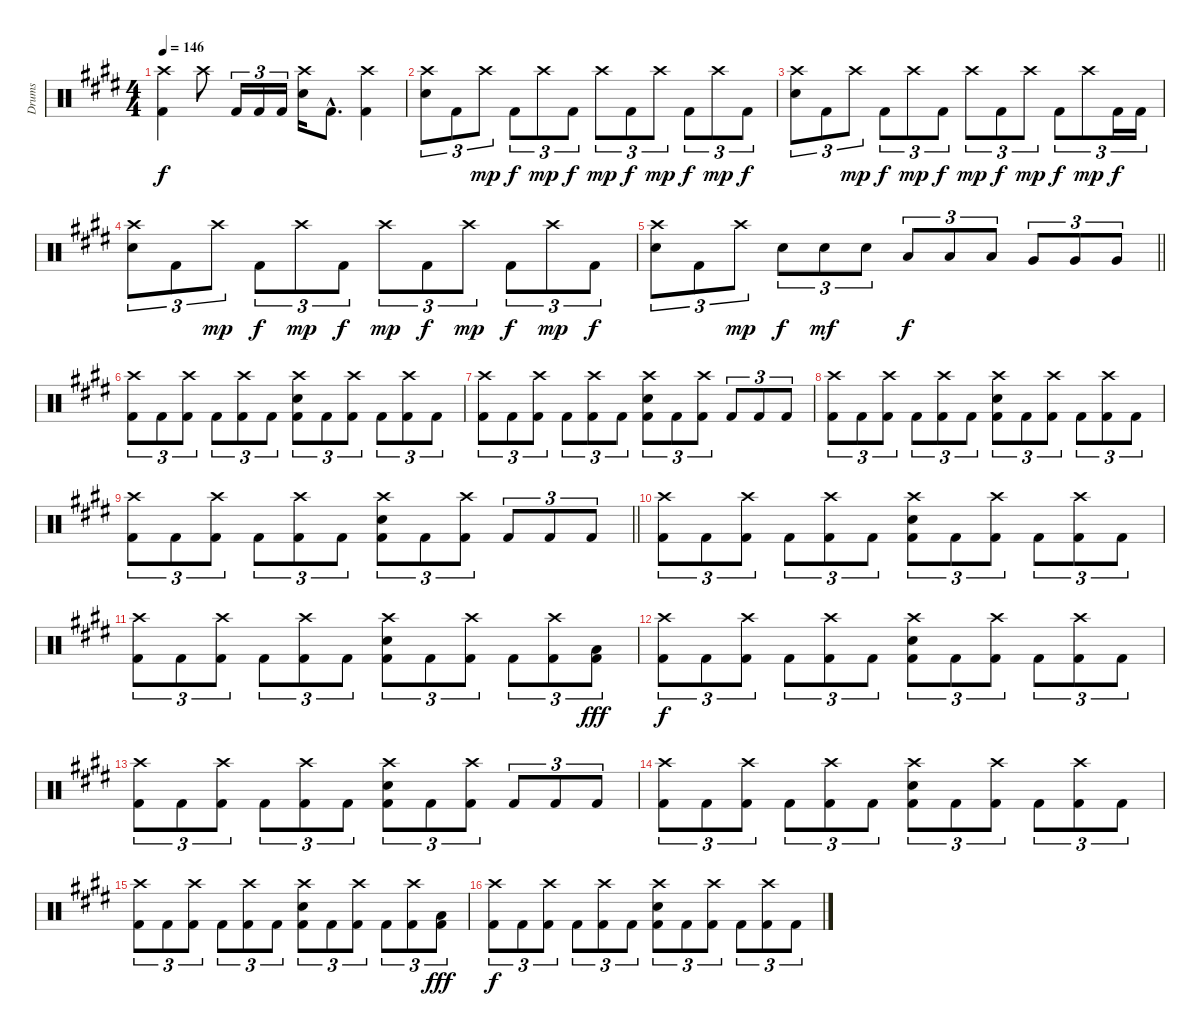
\track ("Drums" "Drums") {instrument percussion}
\staff {score}
\articulation defaults
\ts (4 4)
\tempo 146
\clef neutral
\ks c#minor
("Crash high (hit)" "Kick (hit) 2").4{dy f} "Crash high (hit)".8 "Kick (hit) 2".16{tu (3 2)} "Kick (hit) 2".16{tu (3 2)} "Kick (hit) 2".16{tu (3 2)} ("Crash high (hit)" "Snare (hit) 2").16 "Kick (hit) 2"{hac}.8{d} ("Crash high (hit)" "Kick (hit) 2").4 |
("Crash high (hit)" "Snare (hit) 2").8{tu (3 2)} "Kick (hit) 2".8{tu (3 2)} "Crash high (hit)".8{tu (3 2) dy mp} "Kick (hit) 2".8{tu (3 2) dy f} "Crash high (hit)".8{tu (3 2) dy mp} "Kick (hit) 2".8{tu (3 2) dy f} "Crash high (hit)".8{tu (3 2) dy mp} "Kick (hit) 2".8{tu (3 2) dy f} "Crash high (hit)".8{tu (3 2) dy mp} "Kick (hit) 2".8{tu (3 2) dy f} "Crash high (hit)".8{tu (3 2) dy mp} "Kick (hit) 2".8{tu (3 2) dy f} |
("Crash high (hit)" "Snare (hit) 2").8{tu (3 2)} "Kick (hit) 2".8{tu (3 2)} "Crash high (hit)".8{tu (3 2) dy mp} "Kick (hit) 2".8{tu (3 2) dy f} "Crash high (hit)".8{tu (3 2) dy mp} "Kick (hit) 2".8{tu (3 2) dy f} "Crash high (hit)".8{tu (3 2) dy mp} "Kick (hit) 2".8{tu (3 2) dy f} "Crash high (hit)".8{tu (3 2) dy mp} "Kick (hit) 2".8{tu (3 2) dy f} "Crash high (hit)".8{tu (3 2) dy mp} "Kick (hit) 2".16{tu (3 2) dy f} "Kick (hit) 2".16{tu (3 2)} |
("Crash high (hit)" "Snare (hit) 2").8{tu (3 2)} "Kick (hit) 2".8{tu (3 2)} "Crash high (hit)".8{tu (3 2) dy mp} "Kick (hit) 2".8{tu (3 2) dy f} "Crash high (hit)".8{tu (3 2) dy mp} "Kick (hit) 2".8{tu (3 2) dy f} "Crash high (hit)".8{tu (3 2) dy mp} "Kick (hit) 2".8{tu (3 2) dy f} "Crash high (hit)".8{tu (3 2) dy mp} "Kick (hit) 2".8{tu (3 2) dy f} "Crash high (hit)".8{tu (3 2) dy mp} "Kick (hit) 2".8{tu (3 2) dy f} |
\barLineRight lightlight
("Crash high (hit)" "Snare (hit) 2").8{tu (3 2)} "Kick (hit) 2".8{tu (3 2)} "Crash high (hit)".8{tu (3 2) dy mp} "Snare (hit) 2".8{tu (3 2) dy f} "Snare (hit) 2".8{tu (3 2) dy mf} "Snare (hit) 2".8{tu (3 2)} "Low Tom (hit)".8{tu (3 2) dy f} "Low Tom (hit)".8{tu (3 2)} "Low Tom (hit)".8{tu (3 2)} "Very Low Tom (hit)".8{tu (3 2)} "Very Low Tom (hit)".8{tu (3 2)} "Very Low Tom (hit)".8{tu (3 2)} |
("Crash high (hit)" "Kick (hit) 2").8{tu (3 2)} "Kick (hit) 2".8{tu (3 2)} ("Crash high (hit)" "Kick (hit) 2").8{tu (3 2)} "Kick (hit) 2".8{tu (3 2)} ("Crash high (hit)" "Kick (hit) 2").8{tu (3 2)} "Kick (hit) 2".8{tu (3 2)} ("Crash high (hit)" "Snare (hit) 2" "Kick (hit) 2").8{tu (3 2)} "Kick (hit) 2".8{tu (3 2)} ("Crash high (hit)" "Kick (hit) 2").8{tu (3 2)} "Kick (hit) 2".8{tu (3 2)} ("Crash high (hit)" "Kick (hit) 2").8{tu (3 2)} "Kick (hit) 2".8{tu (3 2)} |
("Crash high (hit)" "Kick (hit) 2").8{tu (3 2)} "Kick (hit) 2".8{tu (3 2)} ("Crash high (hit)" "Kick (hit) 2").8{tu (3 2)} "Kick (hit) 2".8{tu (3 2)} ("Crash high (hit)" "Kick (hit) 2").8{tu (3 2)} "Kick (hit) 2".8{tu (3 2)} ("Crash high (hit)" "Snare (hit) 2" "Kick (hit) 2").8{tu (3 2)} "Kick (hit) 2".8{tu (3 2)} ("Crash high (hit)" "Kick (hit) 2").8{tu (3 2)} "Kick (hit) 2".8{tu (3 2)} "Kick (hit) 2".8{tu (3 2)} "Kick (hit) 2".8{tu (3 2)} |
("Crash high (hit)" "Kick (hit) 2").8{tu (3 2)} "Kick (hit) 2".8{tu (3 2)} ("Crash high (hit)" "Kick (hit) 2").8{tu (3 2)} "Kick (hit) 2".8{tu (3 2)} ("Crash high (hit)" "Kick (hit) 2").8{tu (3 2)} "Kick (hit) 2".8{tu (3 2)} ("Crash high (hit)" "Snare (hit) 2" "Kick (hit) 2").8{tu (3 2)} "Kick (hit) 2".8{tu (3 2)} ("Crash high (hit)" "Kick (hit) 2").8{tu (3 2)} "Kick (hit) 2".8{tu (3 2)} ("Crash high (hit)" "Kick (hit) 2").8{tu (3 2)} "Kick (hit) 2".8{tu (3 2)} |
\barLineRight lightlight
("Crash high (hit)" "Kick (hit) 2").8{tu (3 2)} "Kick (hit) 2".8{tu (3 2)} ("Crash high (hit)" "Kick (hit) 2").8{tu (3 2)} "Kick (hit) 2".8{tu (3 2)} ("Crash high (hit)" "Kick (hit) 2").8{tu (3 2)} "Kick (hit) 2".8{tu (3 2)} ("Crash high (hit)" "Snare (hit) 2" "Kick (hit) 2").8{tu (3 2)} "Kick (hit) 2".8{tu (3 2)} ("Crash high (hit)" "Kick (hit) 2").8{tu (3 2)} "Kick (hit) 2".8{tu (3 2)} "Kick (hit) 2".8{tu (3 2)} "Kick (hit) 2".8{tu (3 2)} |
("Crash high (hit)" "Kick (hit) 2").8{tu (3 2)} "Kick (hit) 2".8{tu (3 2)} ("Crash high (hit)" "Kick (hit) 2").8{tu (3 2)} "Kick (hit) 2".8{tu (3 2)} ("Crash high (hit)" "Kick (hit) 2").8{tu (3 2)} "Kick (hit) 2".8{tu (3 2)} ("Crash high (hit)" "Snare (hit) 2" "Kick (hit) 2").8{tu (3 2)} "Kick (hit) 2".8{tu (3 2)} ("Crash high (hit)" "Kick (hit) 2").8{tu (3 2)} "Kick (hit) 2".8{tu (3 2)} ("Crash high (hit)" "Kick (hit) 2").8{tu (3 2)} "Kick (hit) 2".8{tu (3 2)} |
("Crash high (hit)" "Kick (hit) 2").8{tu (3 2)} "Kick (hit) 2".8{tu (3 2)} ("Crash high (hit)" "Kick (hit) 2").8{tu (3 2)} "Kick (hit) 2".8{tu (3 2)} ("Crash high (hit)" "Kick (hit) 2").8{tu (3 2)} "Kick (hit) 2".8{tu (3 2)} ("Crash high (hit)" "Snare (hit) 2" "Kick (hit) 2").8{tu (3 2)} "Kick (hit) 2".8{tu (3 2)} ("Crash high (hit)" "Kick (hit) 2").8{tu (3 2)} "Kick (hit) 2".8{tu (3 2)} ("Crash high (hit)" "Kick (hit) 2").8{tu (3 2)} ("Low Tom (hit)" "Kick (hit) 2").8{tu (3 2) dy fff} |
("Crash high (hit)" "Kick (hit) 2").8{tu (3 2) dy f} "Kick (hit) 2".8{tu (3 2)} ("Crash high (hit)" "Kick (hit) 2").8{tu (3 2)} "Kick (hit) 2".8{tu (3 2)} ("Crash high (hit)" "Kick (hit) 2").8{tu (3 2)} "Kick (hit) 2".8{tu (3 2)} ("Crash high (hit)" "Snare (hit) 2" "Kick (hit) 2").8{tu (3 2)} "Kick (hit) 2".8{tu (3 2)} ("Crash high (hit)" "Kick (hit) 2").8{tu (3 2)} "Kick (hit) 2".8{tu (3 2)} ("Crash high (hit)" "Kick (hit) 2").8{tu (3 2)} "Kick (hit) 2".8{tu (3 2)} |
("Crash high (hit)" "Kick (hit) 2").8{tu (3 2)} "Kick (hit) 2".8{tu (3 2)} ("Crash high (hit)" "Kick (hit) 2").8{tu (3 2)} "Kick (hit) 2".8{tu (3 2)} ("Crash high (hit)" "Kick (hit) 2").8{tu (3 2)} "Kick (hit) 2".8{tu (3 2)} ("Crash high (hit)" "Snare (hit) 2" "Kick (hit) 2").8{tu (3 2)} "Kick (hit) 2".8{tu (3 2)} ("Crash high (hit)" "Kick (hit) 2").8{tu (3 2)} "Kick (hit) 2".8{tu (3 2)} "Kick (hit) 2".8{tu (3 2)} "Kick (hit) 2".8{tu (3 2)} |
("Crash high (hit)" "Kick (hit) 2").8{tu (3 2)} "Kick (hit) 2".8{tu (3 2)} ("Crash high (hit)" "Kick (hit) 2").8{tu (3 2)} "Kick (hit) 2".8{tu (3 2)} ("Crash high (hit)" "Kick (hit) 2").8{tu (3 2)} "Kick (hit) 2".8{tu (3 2)} ("Crash high (hit)" "Snare (hit) 2" "Kick (hit) 2").8{tu (3 2)} "Kick (hit) 2".8{tu (3 2)} ("Crash high (hit)" "Kick (hit) 2").8{tu (3 2)} "Kick (hit) 2".8{tu (3 2)} ("Crash high (hit)" "Kick (hit) 2").8{tu (3 2)} "Kick (hit) 2".8{tu (3 2)} |
("Crash high (hit)" "Kick (hit) 2").8{tu (3 2)} "Kick (hit) 2".8{tu (3 2)} ("Crash high (hit)" "Kick (hit) 2").8{tu (3 2)} "Kick (hit) 2".8{tu (3 2)} ("Crash high (hit)" "Kick (hit) 2").8{tu (3 2)} "Kick (hit) 2".8{tu (3 2)} ("Crash high (hit)" "Snare (hit) 2" "Kick (hit) 2").8{tu (3 2)} "Kick (hit) 2".8{tu (3 2)} ("Crash high (hit)" "Kick (hit) 2").8{tu (3 2)} "Kick (hit) 2".8{tu (3 2)} ("Crash high (hit)" "Kick (hit) 2").8{tu (3 2)} ("Low Tom (hit)" "Kick (hit) 2").8{tu (3 2) dy fff} |
("Crash high (hit)" "Kick (hit) 2").8{tu (3 2) dy f} "Kick (hit) 2".8{tu (3 2)} ("Crash high (hit)" "Kick (hit) 2").8{tu (3 2)} "Kick (hit) 2".8{tu (3 2)} ("Crash high (hit)" "Kick (hit) 2").8{tu (3 2)} "Kick (hit) 2".8{tu (3 2)} ("Crash high (hit)" "Snare (hit) 2" "Kick (hit) 2").8{tu (3 2)} "Kick (hit) 2".8{tu (3 2)} ("Crash high (hit)" "Kick (hit) 2").8{tu (3 2)} "Kick (hit) 2".8{tu (3 2)} ("Crash high (hit)" "Kick (hit) 2").8{tu (3 2)} "Kick (hit) 2".8{tu (3 2)}
